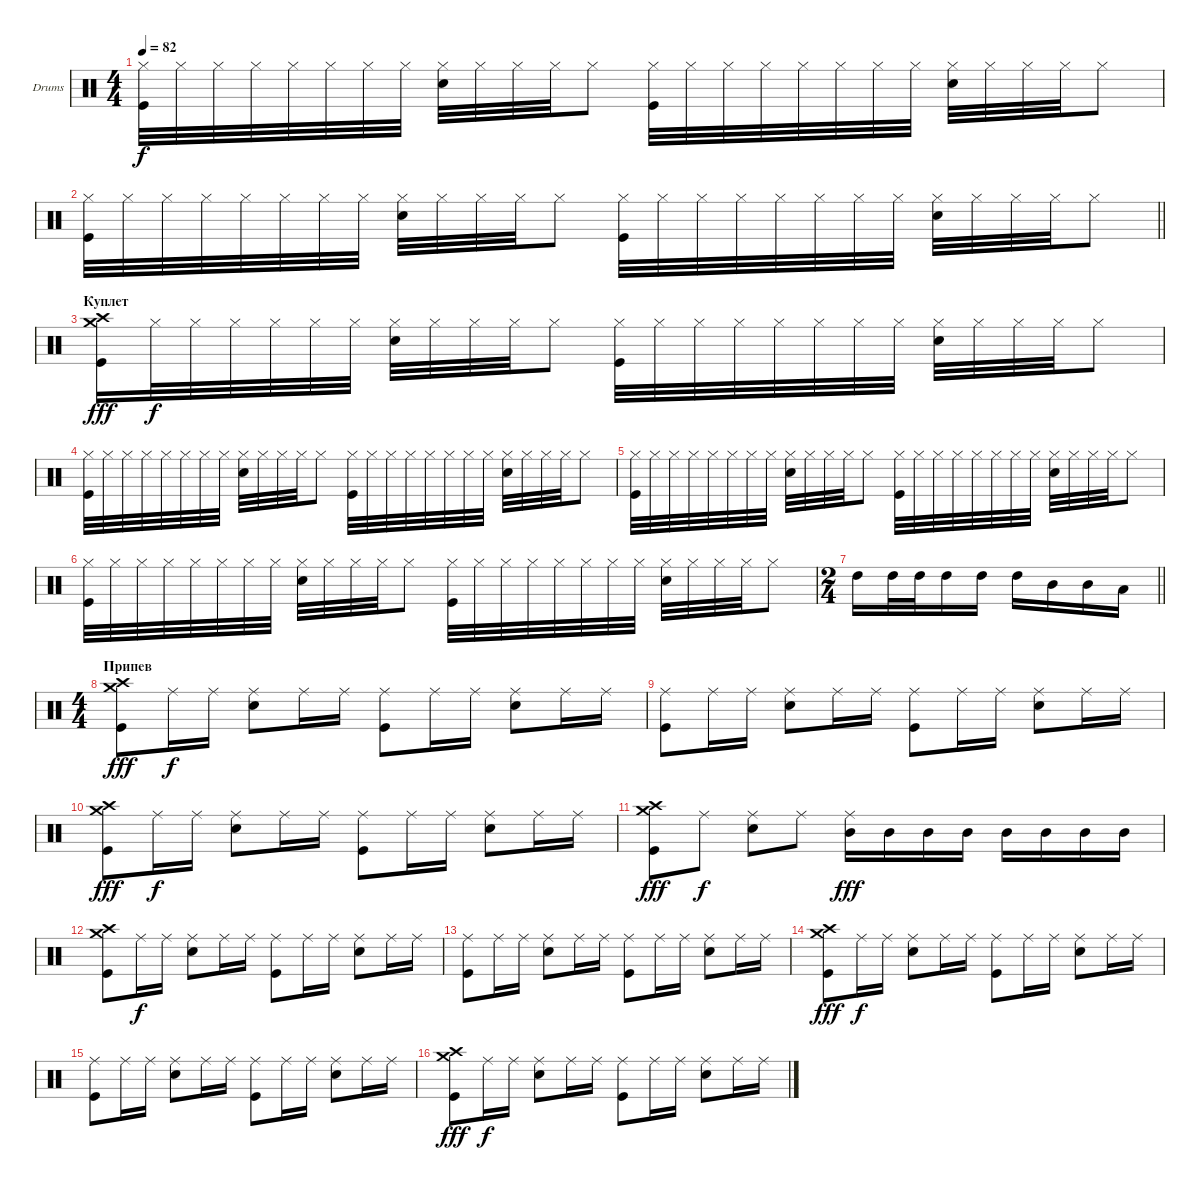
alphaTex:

\bracketExtendMode groupsimilarinstruments
\firstSystemTrackNameOrientation horizontal
\otherSystemsTrackNameOrientation horizontal
\track ("Александр Манякин" "Drums") {instrument percussion}
\staff {score}
\articulation defaults
\ts (4 4)
\tempo 82
\clef neutral
\ks c
("Hi-Hat (closed)" "Kick (hit)").32{dy f} "Hi-Hat (closed)".32 "Hi-Hat (closed)".32 "Hi-Hat (closed)".32 "Hi-Hat (closed)".32 "Hi-Hat (closed)".32 "Hi-Hat (closed)".32 "Hi-Hat (closed)".32 ("Hi-Hat (closed)" "Snare (hit) 2").32 "Hi-Hat (closed)".32 "Hi-Hat (closed)".32 "Hi-Hat (closed)".32 "Hi-Hat (closed)".8 ("Hi-Hat (closed)" "Kick (hit)").32 "Hi-Hat (closed)".32 "Hi-Hat (closed)".32 "Hi-Hat (closed)".32 "Hi-Hat (closed)".32 "Hi-Hat (closed)".32 "Hi-Hat (closed)".32 "Hi-Hat (closed)".32 ("Hi-Hat (closed)" "Snare (hit) 2").32 "Hi-Hat (closed)".32 "Hi-Hat (closed)".32 "Hi-Hat (closed)".32 "Hi-Hat (closed)".8 |
\barLineRight lightlight
("Hi-Hat (closed)" "Kick (hit)").32 "Hi-Hat (closed)".32 "Hi-Hat (closed)".32 "Hi-Hat (closed)".32 "Hi-Hat (closed)".32 "Hi-Hat (closed)".32 "Hi-Hat (closed)".32 "Hi-Hat (closed)".32 ("Hi-Hat (closed)" "Snare (hit) 2").32 "Hi-Hat (closed)".32 "Hi-Hat (closed)".32 "Hi-Hat (closed)".32 "Hi-Hat (closed)".8 ("Hi-Hat (closed)" "Kick (hit)").32 "Hi-Hat (closed)".32 "Hi-Hat (closed)".32 "Hi-Hat (closed)".32 "Hi-Hat (closed)".32 "Hi-Hat (closed)".32 "Hi-Hat (closed)".32 "Hi-Hat (closed)".32 ("Hi-Hat (closed)" "Snare (hit) 2").32 "Hi-Hat (closed)".32 "Hi-Hat (closed)".32 "Hi-Hat (closed)".32 "Hi-Hat (closed)".8 |
\section ("" "Куплет")
("Crash medium (hit)" "Crash high (hit)" "Kick (hit)").16{dy fff} "Hi-Hat (closed)".32{dy f} "Hi-Hat (closed)".32 "Hi-Hat (closed)".32 "Hi-Hat (closed)".32 "Hi-Hat (closed)".32 "Hi-Hat (closed)".32 ("Hi-Hat (closed)" "Snare (hit) 2").32 "Hi-Hat (closed)".32 "Hi-Hat (closed)".32 "Hi-Hat (closed)".32 "Hi-Hat (closed)".8 ("Hi-Hat (closed)" "Kick (hit)").32 "Hi-Hat (closed)".32 "Hi-Hat (closed)".32 "Hi-Hat (closed)".32 "Hi-Hat (closed)".32 "Hi-Hat (closed)".32 "Hi-Hat (closed)".32 "Hi-Hat (closed)".32 ("Hi-Hat (closed)" "Snare (hit) 2").32 "Hi-Hat (closed)".32 "Hi-Hat (closed)".32 "Hi-Hat (closed)".32 "Hi-Hat (closed)".8 |
("Hi-Hat (closed)" "Kick (hit)").32 "Hi-Hat (closed)".32 "Hi-Hat (closed)".32 "Hi-Hat (closed)".32 "Hi-Hat (closed)".32 "Hi-Hat (closed)".32 "Hi-Hat (closed)".32 "Hi-Hat (closed)".32 ("Hi-Hat (closed)" "Snare (hit) 2").32 "Hi-Hat (closed)".32 "Hi-Hat (closed)".32 "Hi-Hat (closed)".32 "Hi-Hat (closed)".8 ("Hi-Hat (closed)" "Kick (hit)").32 "Hi-Hat (closed)".32 "Hi-Hat (closed)".32 "Hi-Hat (closed)".32 "Hi-Hat (closed)".32 "Hi-Hat (closed)".32 "Hi-Hat (closed)".32 "Hi-Hat (closed)".32 ("Hi-Hat (closed)" "Snare (hit) 2").32 "Hi-Hat (closed)".32 "Hi-Hat (closed)".32 "Hi-Hat (closed)".32 "Hi-Hat (closed)".8 |
("Hi-Hat (closed)" "Kick (hit)").32 "Hi-Hat (closed)".32 "Hi-Hat (closed)".32 "Hi-Hat (closed)".32 "Hi-Hat (closed)".32 "Hi-Hat (closed)".32 "Hi-Hat (closed)".32 "Hi-Hat (closed)".32 ("Hi-Hat (closed)" "Snare (hit) 2").32 "Hi-Hat (closed)".32 "Hi-Hat (closed)".32 "Hi-Hat (closed)".32 "Hi-Hat (closed)".8 ("Hi-Hat (closed)" "Kick (hit)").32 "Hi-Hat (closed)".32 "Hi-Hat (closed)".32 "Hi-Hat (closed)".32 "Hi-Hat (closed)".32 "Hi-Hat (closed)".32 "Hi-Hat (closed)".32 "Hi-Hat (closed)".32 ("Hi-Hat (closed)" "Snare (hit) 2").32 "Hi-Hat (closed)".32 "Hi-Hat (closed)".32 "Hi-Hat (closed)".32 "Hi-Hat (closed)".8 |
("Hi-Hat (closed)" "Kick (hit)").32 "Hi-Hat (closed)".32 "Hi-Hat (closed)".32 "Hi-Hat (closed)".32 "Hi-Hat (closed)".32 "Hi-Hat (closed)".32 "Hi-Hat (closed)".32 "Hi-Hat (closed)".32 ("Hi-Hat (closed)" "Snare (hit) 2").32 "Hi-Hat (closed)".32 "Hi-Hat (closed)".32 "Hi-Hat (closed)".32 "Hi-Hat (closed)".8 ("Hi-Hat (closed)" "Kick (hit)").32 "Hi-Hat (closed)".32 "Hi-Hat (closed)".32 "Hi-Hat (closed)".32 "Hi-Hat (closed)".32 "Hi-Hat (closed)".32 "Hi-Hat (closed)".32 "Hi-Hat (closed)".32 ("Hi-Hat (closed)" "Snare (hit) 2").32 "Hi-Hat (closed)".32 "Hi-Hat (closed)".32 "Hi-Hat (closed)".32 "Hi-Hat (closed)".8 |
\ts (2 4)
\beaming (8 2 2)
\barLineRight lightlight "High Tom (hit)".16 "High Tom (hit)".32 "High Tom (hit)".32 "High Tom (hit)".16 "High Tom (hit)".16 "High Tom (hit)".16 "Mid Tom (hit)".16 "Mid Tom (hit)".16 "Low Tom (hit)".16
|
\ts (4 4)
\beaming (8 2 2 2 2)
\section ("" "Припев")
("Kick (hit)" "Crash medium (hit)" "Crash high (hit)").8{dy fff} "Ride (middle)".16{dy f} "Ride (middle)".16 ("Snare (hit) 2" "Ride (middle)").8 "Ride (middle)".16 "Ride (middle)".16 ("Kick (hit)" "Ride (middle)").8 "Ride (middle)".16 "Ride (middle)".16 ("Snare (hit) 2" "Ride (middle)").8 "Ride (middle)".16 "Ride (middle)".16 |
("Kick (hit)" "Ride (middle)").8 "Ride (middle)".16 "Ride (middle)".16 ("Snare (hit) 2" "Ride (middle)").8 "Ride (middle)".16 "Ride (middle)".16 ("Kick (hit)" "Ride (middle)").8 "Ride (middle)".16 "Ride (middle)".16 ("Snare (hit) 2" "Ride (middle)").8 "Ride (middle)".16 "Ride (middle)".16 |
("Kick (hit)" "Crash medium (hit)" "Crash high (hit)").8{dy fff} "Ride (middle)".16{dy f} "Ride (middle)".16 ("Snare (hit) 2" "Ride (middle)").8 "Ride (middle)".16 "Ride (middle)".16 ("Kick (hit)" "Ride (middle)").8 "Ride (middle)".16 "Ride (middle)".16 ("Snare (hit) 2" "Ride (middle)").8 "Ride (middle)".16 "Ride (middle)".16 |
("Kick (hit)" "Crash medium (hit)" "Crash high (hit)").8{dy fff} "Ride (middle)".8{dy f} ("Snare (hit) 2" "Ride (middle)").8 "Ride (middle)".8 ("Mid Tom (hit)" "Ride (middle)").16{dy fff} "Mid Tom (hit)".16 "Mid Tom (hit)".16 "Mid Tom (hit)".16 "Mid Tom (hit)".16 "Mid Tom (hit)".16 "Mid Tom (hit)".16 "Mid Tom (hit)".16 |
("Kick (hit)" "Crash medium (hit)" "Crash high (hit)").8 "Ride (middle)".16{dy f} "Ride (middle)".16 ("Snare (hit) 2" "Ride (middle)").8 "Ride (middle)".16 "Ride (middle)".16 ("Kick (hit)" "Ride (middle)").8 "Ride (middle)".16 "Ride (middle)".16 ("Snare (hit) 2" "Ride (middle)").8 "Ride (middle)".16 "Ride (middle)".16 |
("Kick (hit)" "Ride (middle)").8 "Ride (middle)".16 "Ride (middle)".16 ("Snare (hit) 2" "Ride (middle)").8 "Ride (middle)".16 "Ride (middle)".16 ("Kick (hit)" "Ride (middle)").8 "Ride (middle)".16 "Ride (middle)".16 ("Snare (hit) 2" "Ride (middle)").8 "Ride (middle)".16 "Ride (middle)".16 |
("Kick (hit)" "Crash medium (hit)" "Crash high (hit)").8{dy fff} "Ride (middle)".16{dy f} "Ride (middle)".16 ("Snare (hit) 2" "Ride (middle)").8 "Ride (middle)".16 "Ride (middle)".16 ("Kick (hit)" "Ride (middle)").8 "Ride (middle)".16 "Ride (middle)".16 ("Snare (hit) 2" "Ride (middle)").8 "Ride (middle)".16 "Ride (middle)".16 |
("Kick (hit)" "Ride (middle)").8 "Ride (middle)".16 "Ride (middle)".16 ("Snare (hit) 2" "Ride (middle)").8 "Ride (middle)".16 "Ride (middle)".16 ("Kick (hit)" "Ride (middle)").8 "Ride (middle)".16 "Ride (middle)".16 ("Snare (hit) 2" "Ride (middle)").8 "Ride (middle)".16 "Ride (middle)".16 |
("Kick (hit)" "Crash medium (hit)" "Crash high (hit)").8{dy fff} "Ride (middle)".16{dy f} "Ride (middle)".16 ("Snare (hit) 2" "Ride (middle)").8 "Ride (middle)".16 "Ride (middle)".16 ("Kick (hit)" "Ride (middle)").8 "Ride (middle)".16 "Ride (middle)".16 ("Snare (hit) 2" "Ride (middle)").8 "Ride (middle)".16 "Ride (middle)".16
